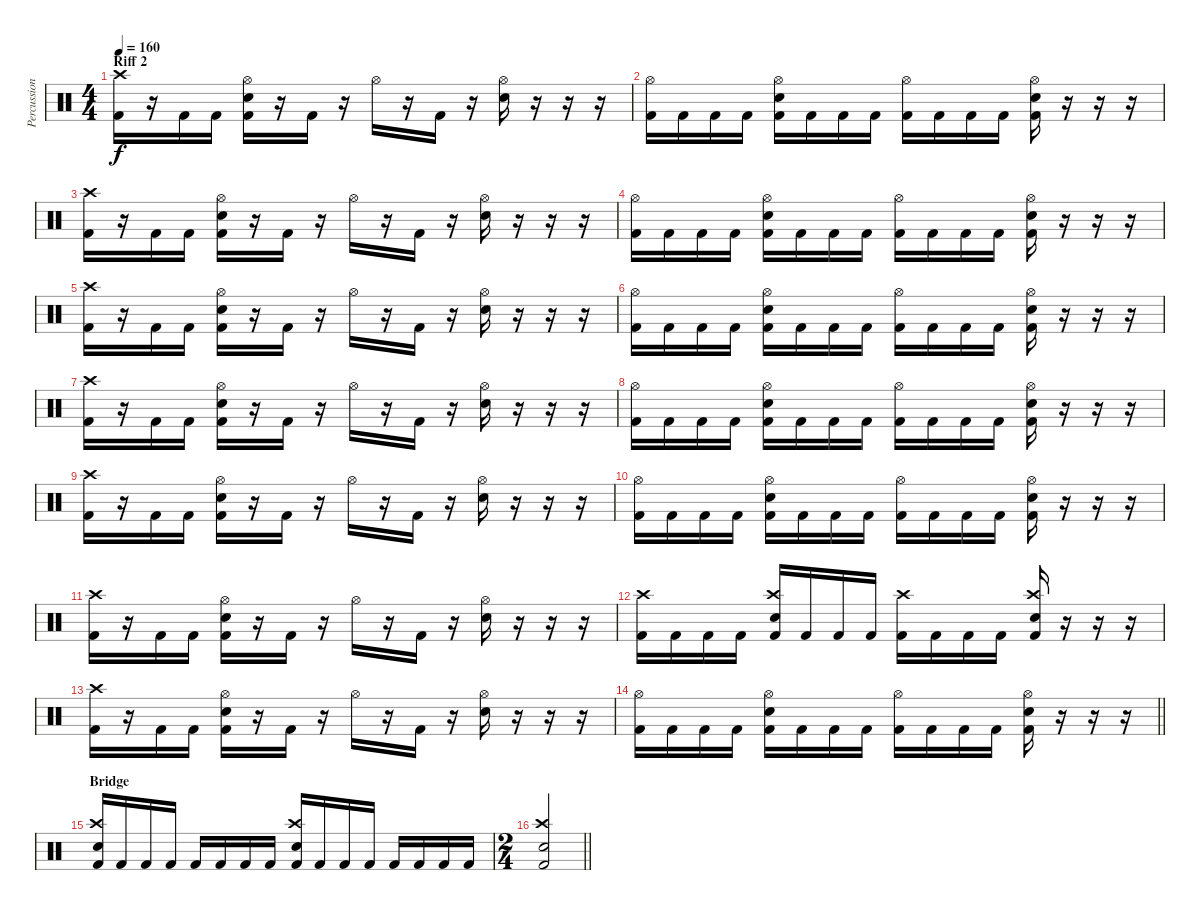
\track ("Percussions" "Percussion") {instrument percussion bank 1}
\staff {score}
\articulation defaults
\ts (4 4)
\section ("" "Riff 2")
\tempo 160
\clef neutral
\ks c
("Kick (hit) 2" "Crash high (hit)").16{dy f} r.16 "Kick (hit) 2".16 "Kick (hit) 2".16 ("Kick (hit) 2" "Electric Snare (hit)" "Hi-Hat (open)").16 r.16 "Kick (hit) 2".16 r.16 "Hi-Hat (open)".16 r.16 "Kick (hit) 2".16 r.16 ("Electric Snare (hit)" "Hi-Hat (open)").16 r.16 r.16 r.16 |
("Kick (hit) 2" "Hi-Hat (open)").16 "Kick (hit) 2".16 "Kick (hit) 2".16 "Kick (hit) 2".16 ("Kick (hit) 2" "Electric Snare (hit)" "Hi-Hat (open)").16 "Kick (hit) 2".16 "Kick (hit) 2".16 "Kick (hit) 2".16 ("Kick (hit) 2" "Hi-Hat (open)").16 "Kick (hit) 2".16 "Kick (hit) 2".16 "Kick (hit) 2".16 ("Kick (hit) 2" "Electric Snare (hit)" "Hi-Hat (open)").16 r.16 r.16 r.16 |
("Kick (hit) 2" "Crash high (hit)").16 r.16 "Kick (hit) 2".16 "Kick (hit) 2".16 ("Kick (hit) 2" "Electric Snare (hit)" "Hi-Hat (open)").16 r.16 "Kick (hit) 2".16 r.16 "Hi-Hat (open)".16 r.16 "Kick (hit) 2".16 r.16 ("Electric Snare (hit)" "Hi-Hat (open)").16 r.16 r.16 r.16 |
("Kick (hit) 2" "Hi-Hat (open)").16 "Kick (hit) 2".16 "Kick (hit) 2".16 "Kick (hit) 2".16 ("Kick (hit) 2" "Electric Snare (hit)" "Hi-Hat (open)").16 "Kick (hit) 2".16 "Kick (hit) 2".16 "Kick (hit) 2".16 ("Kick (hit) 2" "Hi-Hat (open)").16 "Kick (hit) 2".16 "Kick (hit) 2".16 "Kick (hit) 2".16 ("Kick (hit) 2" "Electric Snare (hit)" "Hi-Hat (open)").16 r.16 r.16 r.16 |
("Kick (hit) 2" "Crash high (hit)").16 r.16 "Kick (hit) 2".16 "Kick (hit) 2".16 ("Kick (hit) 2" "Electric Snare (hit)" "Hi-Hat (open)").16 r.16 "Kick (hit) 2".16 r.16 "Hi-Hat (open)".16 r.16 "Kick (hit) 2".16 r.16 ("Electric Snare (hit)" "Hi-Hat (open)").16 r.16 r.16 r.16 |
("Kick (hit) 2" "Hi-Hat (open)").16 "Kick (hit) 2".16 "Kick (hit) 2".16 "Kick (hit) 2".16 ("Kick (hit) 2" "Electric Snare (hit)" "Hi-Hat (open)").16 "Kick (hit) 2".16 "Kick (hit) 2".16 "Kick (hit) 2".16 ("Kick (hit) 2" "Hi-Hat (open)").16 "Kick (hit) 2".16 "Kick (hit) 2".16 "Kick (hit) 2".16 ("Kick (hit) 2" "Electric Snare (hit)" "Hi-Hat (open)").16 r.16 r.16 r.16 |
("Kick (hit) 2" "Crash high (hit)").16 r.16 "Kick (hit) 2".16 "Kick (hit) 2".16 ("Kick (hit) 2" "Electric Snare (hit)" "Hi-Hat (open)").16 r.16 "Kick (hit) 2".16 r.16 "Hi-Hat (open)".16 r.16 "Kick (hit) 2".16 r.16 ("Electric Snare (hit)" "Hi-Hat (open)").16 r.16 r.16 r.16 |
("Kick (hit) 2" "Hi-Hat (open)").16 "Kick (hit) 2".16 "Kick (hit) 2".16 "Kick (hit) 2".16 ("Kick (hit) 2" "Electric Snare (hit)" "Hi-Hat (open)").16 "Kick (hit) 2".16 "Kick (hit) 2".16 "Kick (hit) 2".16 ("Kick (hit) 2" "Hi-Hat (open)").16 "Kick (hit) 2".16 "Kick (hit) 2".16 "Kick (hit) 2".16 ("Kick (hit) 2" "Electric Snare (hit)" "Hi-Hat (open)").16 r.16 r.16 r.16 |
("Kick (hit) 2" "Crash high (hit)").16 r.16 "Kick (hit) 2".16 "Kick (hit) 2".16 ("Kick (hit) 2" "Electric Snare (hit)" "Hi-Hat (open)").16 r.16 "Kick (hit) 2".16 r.16 "Hi-Hat (open)".16 r.16 "Kick (hit) 2".16 r.16 ("Electric Snare (hit)" "Hi-Hat (open)").16 r.16 r.16 r.16 |
("Kick (hit) 2" "Hi-Hat (open)").16 "Kick (hit) 2".16 "Kick (hit) 2".16 "Kick (hit) 2".16 ("Kick (hit) 2" "Electric Snare (hit)" "Hi-Hat (open)").16 "Kick (hit) 2".16 "Kick (hit) 2".16 "Kick (hit) 2".16 ("Kick (hit) 2" "Hi-Hat (open)").16 "Kick (hit) 2".16 "Kick (hit) 2".16 "Kick (hit) 2".16 ("Kick (hit) 2" "Electric Snare (hit)" "Hi-Hat (open)").16 r.16 r.16 r.16 |
("Kick (hit) 2" "Crash high (hit)").16 r.16 "Kick (hit) 2".16 "Kick (hit) 2".16 ("Kick (hit) 2" "Electric Snare (hit)" "Hi-Hat (open)").16 r.16 "Kick (hit) 2".16 r.16 "Hi-Hat (open)".16 r.16 "Kick (hit) 2".16 r.16 ("Electric Snare (hit)" "Hi-Hat (open)").16 r.16 r.16 r.16 |
("Kick (hit) 2" "Crash high (hit)").16 "Kick (hit) 2".16 "Kick (hit) 2".16 "Kick (hit) 2".16 ("Kick (hit) 2" "Electric Snare (hit)" "Crash high (hit)").16 "Kick (hit) 2".16 "Kick (hit) 2".16 "Kick (hit) 2".16 ("Kick (hit) 2" "Crash high (hit)").16 "Kick (hit) 2".16 "Kick (hit) 2".16 "Kick (hit) 2".16 ("Kick (hit) 2" "Electric Snare (hit)" "Crash high (hit)").16 r.16 r.16 r.16 |
("Kick (hit) 2" "Crash high (hit)").16 r.16 "Kick (hit) 2".16 "Kick (hit) 2".16 ("Kick (hit) 2" "Electric Snare (hit)" "Hi-Hat (open)").16 r.16 "Kick (hit) 2".16 r.16 "Hi-Hat (open)".16 r.16 "Kick (hit) 2".16 r.16 ("Electric Snare (hit)" "Hi-Hat (open)").16 r.16 r.16 r.16 |
\barLineRight lightlight
("Kick (hit) 2" "Hi-Hat (open)").16 "Kick (hit) 2".16 "Kick (hit) 2".16 "Kick (hit) 2".16 ("Kick (hit) 2" "Electric Snare (hit)" "Hi-Hat (open)").16 "Kick (hit) 2".16 "Kick (hit) 2".16 "Kick (hit) 2".16 ("Kick (hit) 2" "Hi-Hat (open)").16 "Kick (hit) 2".16 "Kick (hit) 2".16 "Kick (hit) 2".16 ("Kick (hit) 2" "Electric Snare (hit)" "Hi-Hat (open)").16 r.16 r.16 r.16 |
\section ("" "Bridge")
("Kick (hit) 2" "Electric Snare (hit)" "Crash high (hit)").16 "Kick (hit) 2".16 "Kick (hit) 2".16 "Kick (hit) 2".16 "Kick (hit) 2".16 "Kick (hit) 2".16 "Kick (hit) 2".16 "Kick (hit) 2".16 ("Kick (hit) 2" "Electric Snare (hit)" "Crash high (hit)").16 "Kick (hit) 2".16 "Kick (hit) 2".16 "Kick (hit) 2".16 "Kick (hit) 2".16 "Kick (hit) 2".16 "Kick (hit) 2".16 "Kick (hit) 2".16 |
\ts (2 4)
\barLineRight lightlight
("Kick (hit) 2" "Electric Snare (hit)" "Crash high (hit)").2
